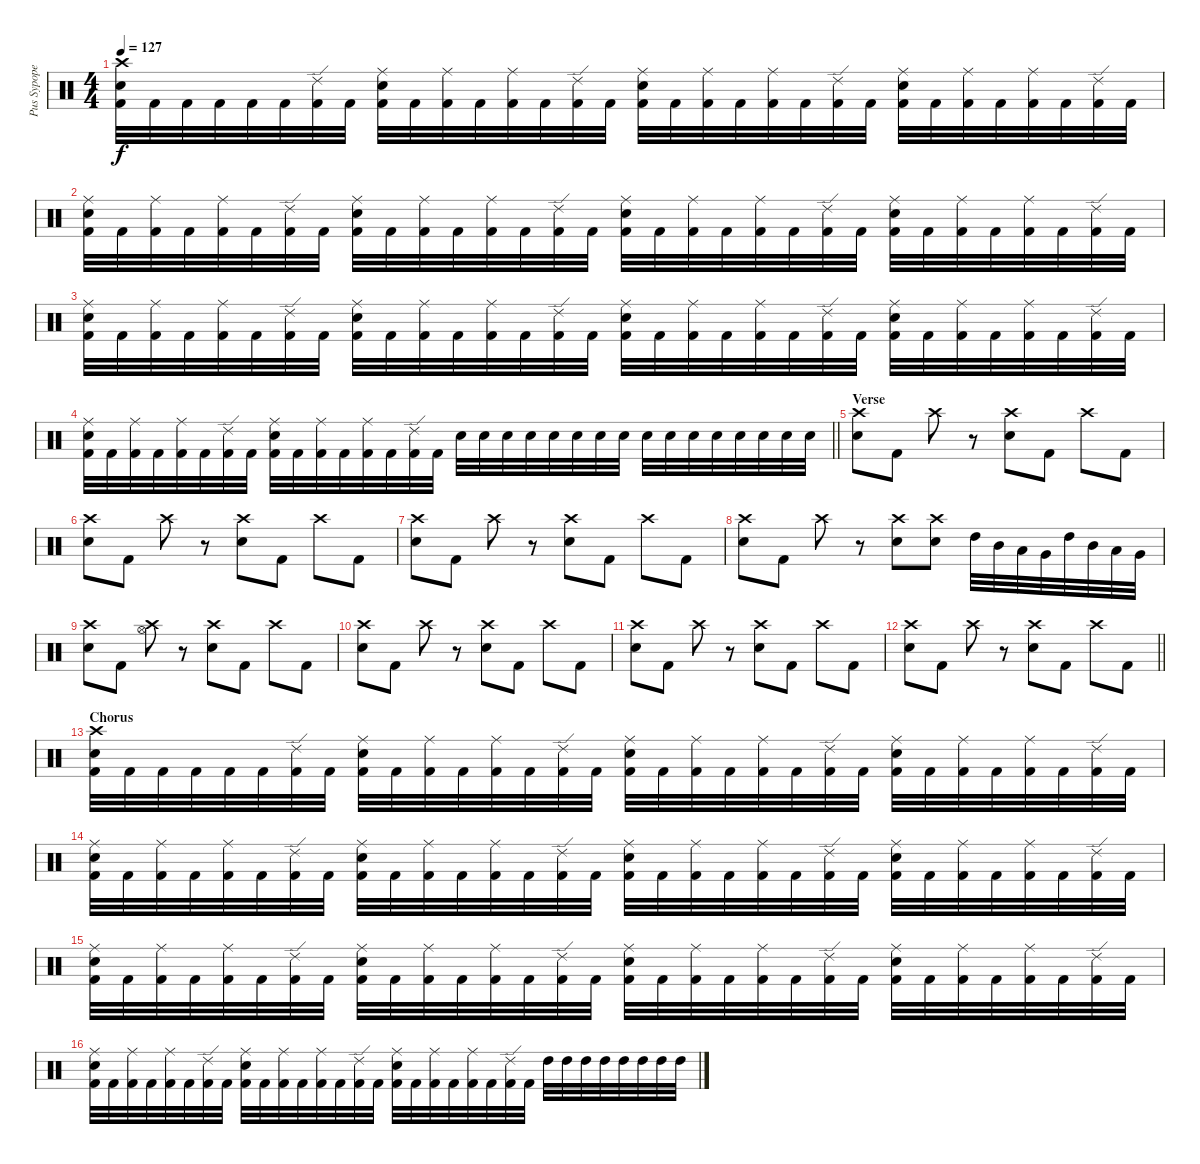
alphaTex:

\track ("Pus Sypope" "Pus Sypope") {instrument percussion}
\staff {score}
\articulation defaults
\ts (4 4)
\tempo 127
\clef neutral
\ks c
("Crash high (hit)" "Electric Snare (hit)" "Kick (hit) 2").32{dy f} "Kick (hit) 2".32 "Kick (hit) 2".32 "Kick (hit) 2".32 "Kick (hit) 2".32 "Kick (hit) 2".32 ("Ride (edge) 2" "Kick (hit) 2").32 "Kick (hit) 2".32 ("Ride (middle)" "Electric Snare (hit)" "Kick (hit) 2").32 "Kick (hit) 2".32 ("Ride (middle)" "Kick (hit) 2").32 "Kick (hit) 2".32 ("Ride (middle)" "Kick (hit) 2").32 "Kick (hit) 2".32 ("Ride (edge) 2" "Kick (hit) 2").32 "Kick (hit) 2".32 ("Ride (middle)" "Electric Snare (hit)" "Kick (hit) 2").32 "Kick (hit) 2".32 ("Ride (middle)" "Kick (hit) 2").32 "Kick (hit) 2".32 ("Ride (middle)" "Kick (hit) 2").32 "Kick (hit) 2".32 ("Ride (edge) 2" "Kick (hit) 2").32 "Kick (hit) 2".32 ("Ride (middle)" "Electric Snare (hit)" "Kick (hit) 2").32 "Kick (hit) 2".32 ("Ride (middle)" "Kick (hit) 2").32 "Kick (hit) 2".32 ("Ride (middle)" "Kick (hit) 2").32 "Kick (hit) 2".32 ("Ride (edge) 2" "Kick (hit) 2").32 "Kick (hit) 2".32 |
("Ride (middle)" "Electric Snare (hit)" "Kick (hit) 2").32 "Kick (hit) 2".32 ("Ride (middle)" "Kick (hit) 2").32 "Kick (hit) 2".32 ("Ride (middle)" "Kick (hit) 2").32 "Kick (hit) 2".32 ("Ride (edge) 2" "Kick (hit) 2").32 "Kick (hit) 2".32 ("Ride (middle)" "Electric Snare (hit)" "Kick (hit) 2").32 "Kick (hit) 2".32 ("Ride (middle)" "Kick (hit) 2").32 "Kick (hit) 2".32 ("Ride (middle)" "Kick (hit) 2").32 "Kick (hit) 2".32 ("Ride (edge) 2" "Kick (hit) 2").32 "Kick (hit) 2".32 ("Ride (middle)" "Electric Snare (hit)" "Kick (hit) 2").32 "Kick (hit) 2".32 ("Ride (middle)" "Kick (hit) 2").32 "Kick (hit) 2".32 ("Ride (middle)" "Kick (hit) 2").32 "Kick (hit) 2".32 ("Ride (edge) 2" "Kick (hit) 2").32 "Kick (hit) 2".32 ("Ride (middle)" "Electric Snare (hit)" "Kick (hit) 2").32 "Kick (hit) 2".32 ("Ride (middle)" "Kick (hit) 2").32 "Kick (hit) 2".32 ("Ride (middle)" "Kick (hit) 2").32 "Kick (hit) 2".32 ("Ride (edge) 2" "Kick (hit) 2").32 "Kick (hit) 2".32 |
("Ride (middle)" "Electric Snare (hit)" "Kick (hit) 2").32 "Kick (hit) 2".32 ("Ride (middle)" "Kick (hit) 2").32 "Kick (hit) 2".32 ("Ride (middle)" "Kick (hit) 2").32 "Kick (hit) 2".32 ("Ride (edge) 2" "Kick (hit) 2").32 "Kick (hit) 2".32 ("Ride (middle)" "Electric Snare (hit)" "Kick (hit) 2").32 "Kick (hit) 2".32 ("Ride (middle)" "Kick (hit) 2").32 "Kick (hit) 2".32 ("Ride (middle)" "Kick (hit) 2").32 "Kick (hit) 2".32 ("Ride (edge) 2" "Kick (hit) 2").32 "Kick (hit) 2".32 ("Ride (middle)" "Electric Snare (hit)" "Kick (hit) 2").32 "Kick (hit) 2".32 ("Ride (middle)" "Kick (hit) 2").32 "Kick (hit) 2".32 ("Ride (middle)" "Kick (hit) 2").32 "Kick (hit) 2".32 ("Ride (edge) 2" "Kick (hit) 2").32 "Kick (hit) 2".32 ("Ride (middle)" "Electric Snare (hit)" "Kick (hit) 2").32 "Kick (hit) 2".32 ("Ride (middle)" "Kick (hit) 2").32 "Kick (hit) 2".32 ("Ride (middle)" "Kick (hit) 2").32 "Kick (hit) 2".32 ("Ride (edge) 2" "Kick (hit) 2").32 "Kick (hit) 2".32 |
\barLineRight lightlight
("Ride (middle)" "Electric Snare (hit)" "Kick (hit) 2").32 "Kick (hit) 2".32 ("Ride (middle)" "Kick (hit) 2").32 "Kick (hit) 2".32 ("Ride (middle)" "Kick (hit) 2").32 "Kick (hit) 2".32 ("Ride (edge) 2" "Kick (hit) 2").32 "Kick (hit) 2".32 ("Ride (middle)" "Electric Snare (hit)" "Kick (hit) 2").32 "Kick (hit) 2".32 ("Ride (middle)" "Kick (hit) 2").32 "Kick (hit) 2".32 ("Ride (middle)" "Kick (hit) 2").32 "Kick (hit) 2".32 ("Ride (edge) 2" "Kick (hit) 2").32 "Kick (hit) 2".32 "Snare (hit) 2".32 "Snare (hit) 2".32 "Snare (hit) 2".32 "Snare (hit) 2".32 "Snare (hit) 2".32 "Snare (hit) 2".32 "Snare (hit) 2".32 "Snare (hit) 2".32 "Snare (hit) 2".32 "Snare (hit) 2".32 "Snare (hit) 2".32 "Snare (hit) 2".32 "Snare (hit) 2".32 "Snare (hit) 2".32 "Snare (hit) 2".32 "Snare (hit) 2".32 |
\section ("" "Verse")
("Crash high (hit)" "Electric Snare (hit)").8 "Kick (hit) 2".8 "Crash high (hit)".8 r.8 ("Crash high (hit)" "Electric Snare (hit)").8 "Kick (hit) 2".8 "Crash high (hit)".8 "Kick (hit) 2".8 |
("Crash high (hit)" "Electric Snare (hit)").8 "Kick (hit) 2".8 "Crash high (hit)".8 r.8 ("Crash high (hit)" "Electric Snare (hit)").8 "Kick (hit) 2".8 "Crash high (hit)".8 "Kick (hit) 2".8 |
("Crash high (hit)" "Electric Snare (hit)").8 "Kick (hit) 2".8 "Crash high (hit)".8 r.8 ("Crash high (hit)" "Electric Snare (hit)").8 "Kick (hit) 2".8 "Crash high (hit)".8 "Kick (hit) 2".8 |
("Crash high (hit)" "Electric Snare (hit)").8 "Kick (hit) 2".8 "Crash high (hit)".8 r.8 ("Crash high (hit)" "Electric Snare (hit)").8 ("Crash high (hit)" "Electric Snare (hit)").8 "High Tom (hit)".32 "Mid Tom (hit)".32 "Low Tom (hit)".32 "Very Low Tom (hit)".32 "High Tom (hit)".32 "Mid Tom (hit)".32 "Low Tom (hit)".32 "Very Low Tom (hit)".32 |
("Crash high (hit)" "Electric Snare (hit)").8 "Kick (hit) 2".8 ("Hi-Hat (open)" "Crash high (hit)").8 r.8 ("Crash high (hit)" "Electric Snare (hit)").8 "Kick (hit) 2".8 "Crash high (hit)".8 "Kick (hit) 2".8 |
("Crash high (hit)" "Electric Snare (hit)").8 "Kick (hit) 2".8 "Crash high (hit)".8 r.8 ("Crash high (hit)" "Electric Snare (hit)").8 "Kick (hit) 2".8 "Crash high (hit)".8 "Kick (hit) 2".8 |
("Crash high (hit)" "Electric Snare (hit)").8 "Kick (hit) 2".8 "Crash high (hit)".8 r.8 ("Crash high (hit)" "Electric Snare (hit)").8 "Kick (hit) 2".8 "Crash high (hit)".8 "Kick (hit) 2".8 |
\barLineRight lightlight
("Crash high (hit)" "Electric Snare (hit)").8 "Kick (hit) 2".8 "Crash high (hit)".8 r.8 ("Crash high (hit)" "Electric Snare (hit)").8 "Kick (hit) 2".8 "Crash high (hit)".8 "Kick (hit) 2".8 |
\section ("" "Chorus")
("Crash high (hit)" "Electric Snare (hit)" "Kick (hit) 2").32 "Kick (hit) 2".32 "Kick (hit) 2".32 "Kick (hit) 2".32 "Kick (hit) 2".32 "Kick (hit) 2".32 ("Ride (edge) 2" "Kick (hit) 2").32 "Kick (hit) 2".32 ("Ride (middle)" "Electric Snare (hit)" "Kick (hit) 2").32 "Kick (hit) 2".32 ("Ride (middle)" "Kick (hit) 2").32 "Kick (hit) 2".32 ("Ride (middle)" "Kick (hit) 2").32 "Kick (hit) 2".32 ("Ride (edge) 2" "Kick (hit) 2").32 "Kick (hit) 2".32 ("Ride (middle)" "Electric Snare (hit)" "Kick (hit) 2").32 "Kick (hit) 2".32 ("Ride (middle)" "Kick (hit) 2").32 "Kick (hit) 2".32 ("Ride (middle)" "Kick (hit) 2").32 "Kick (hit) 2".32 ("Ride (edge) 2" "Kick (hit) 2").32 "Kick (hit) 2".32 ("Ride (middle)" "Electric Snare (hit)" "Kick (hit) 2").32 "Kick (hit) 2".32 ("Ride (middle)" "Kick (hit) 2").32 "Kick (hit) 2".32 ("Ride (middle)" "Kick (hit) 2").32 "Kick (hit) 2".32 ("Ride (edge) 2" "Kick (hit) 2").32 "Kick (hit) 2".32 |
("Ride (middle)" "Electric Snare (hit)" "Kick (hit) 2").32 "Kick (hit) 2".32 ("Ride (middle)" "Kick (hit) 2").32 "Kick (hit) 2".32 ("Ride (middle)" "Kick (hit) 2").32 "Kick (hit) 2".32 ("Ride (edge) 2" "Kick (hit) 2").32 "Kick (hit) 2".32 ("Ride (middle)" "Electric Snare (hit)" "Kick (hit) 2").32 "Kick (hit) 2".32 ("Ride (middle)" "Kick (hit) 2").32 "Kick (hit) 2".32 ("Ride (middle)" "Kick (hit) 2").32 "Kick (hit) 2".32 ("Ride (edge) 2" "Kick (hit) 2").32 "Kick (hit) 2".32 ("Ride (middle)" "Electric Snare (hit)" "Kick (hit) 2").32 "Kick (hit) 2".32 ("Ride (middle)" "Kick (hit) 2").32 "Kick (hit) 2".32 ("Ride (middle)" "Kick (hit) 2").32 "Kick (hit) 2".32 ("Ride (edge) 2" "Kick (hit) 2").32 "Kick (hit) 2".32 ("Ride (middle)" "Electric Snare (hit)" "Kick (hit) 2").32 "Kick (hit) 2".32 ("Ride (middle)" "Kick (hit) 2").32 "Kick (hit) 2".32 ("Ride (middle)" "Kick (hit) 2").32 "Kick (hit) 2".32 ("Ride (edge) 2" "Kick (hit) 2").32 "Kick (hit) 2".32 |
("Ride (middle)" "Electric Snare (hit)" "Kick (hit) 2").32 "Kick (hit) 2".32 ("Ride (middle)" "Kick (hit) 2").32 "Kick (hit) 2".32 ("Ride (middle)" "Kick (hit) 2").32 "Kick (hit) 2".32 ("Ride (edge) 2" "Kick (hit) 2").32 "Kick (hit) 2".32 ("Ride (middle)" "Electric Snare (hit)" "Kick (hit) 2").32 "Kick (hit) 2".32 ("Ride (middle)" "Kick (hit) 2").32 "Kick (hit) 2".32 ("Ride (middle)" "Kick (hit) 2").32 "Kick (hit) 2".32 ("Ride (edge) 2" "Kick (hit) 2").32 "Kick (hit) 2".32 ("Ride (middle)" "Electric Snare (hit)" "Kick (hit) 2").32 "Kick (hit) 2".32 ("Ride (middle)" "Kick (hit) 2").32 "Kick (hit) 2".32 ("Ride (middle)" "Kick (hit) 2").32 "Kick (hit) 2".32 ("Ride (edge) 2" "Kick (hit) 2").32 "Kick (hit) 2".32 ("Ride (middle)" "Electric Snare (hit)" "Kick (hit) 2").32 "Kick (hit) 2".32 ("Ride (middle)" "Kick (hit) 2").32 "Kick (hit) 2".32 ("Ride (middle)" "Kick (hit) 2").32 "Kick (hit) 2".32 ("Ride (edge) 2" "Kick (hit) 2").32 "Kick (hit) 2".32 |
("Ride (middle)" "Electric Snare (hit)" "Kick (hit) 2").32 "Kick (hit) 2".32 ("Ride (middle)" "Kick (hit) 2").32 "Kick (hit) 2".32 ("Ride (middle)" "Kick (hit) 2").32 "Kick (hit) 2".32 ("Ride (edge) 2" "Kick (hit) 2").32 "Kick (hit) 2".32 ("Ride (middle)" "Electric Snare (hit)" "Kick (hit) 2").32 "Kick (hit) 2".32 ("Ride (middle)" "Kick (hit) 2").32 "Kick (hit) 2".32 ("Ride (middle)" "Kick (hit) 2").32 "Kick (hit) 2".32 ("Ride (edge) 2" "Kick (hit) 2").32 "Kick (hit) 2".32 ("Ride (middle)" "Electric Snare (hit)" "Kick (hit) 2").32 "Kick (hit) 2".32 ("Ride (middle)" "Kick (hit) 2").32 "Kick (hit) 2".32 ("Ride (middle)" "Kick (hit) 2").32 "Kick (hit) 2".32 ("Ride (edge) 2" "Kick (hit) 2").32 "Kick (hit) 2".32 "High Tom (hit)".32 "High Tom (hit)".32 "High Tom (hit)".32 "High Tom (hit)".32 "High Tom (hit)".32 "High Tom (hit)".32 "High Tom (hit)".32 "High Tom (hit)".32
